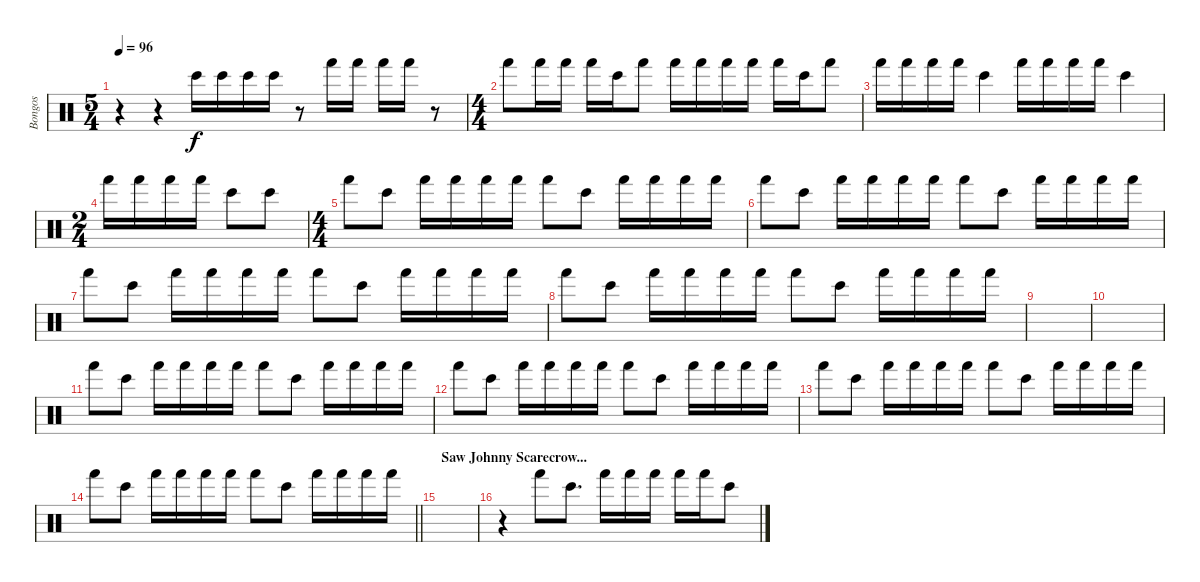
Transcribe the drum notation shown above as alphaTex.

\track ("Bongos" "Bongos") {instrument percussion}
\staff {score}
\articulation defaults
\ts (5 4)
\tempo 96
\clef neutral
\ks c
r.4{dy f} r.4 "Bongo High (hit)".16 "Bongo High (hit)".16 "Bongo High (hit)".16 "Bongo High (hit)".16 r.8 "Hand (hit)".16 "Hand (hit)".16 "Hand (hit)".16 "Hand (hit)".16 r.8 |
\ts (4 4)
"Hand (hit)".8 "Hand (hit)".16 "Hand (hit)".16 "Hand (hit)".16 "Bongo High (hit)".16 "Hand (hit)".8 "Hand (hit)".16 "Hand (hit)".16 "Hand (hit)".16 "Hand (hit)".16 "Hand (hit)".16 "Bongo High (hit)".16 "Hand (hit)".8 |
"Hand (hit)".16 "Hand (hit)".16 "Hand (hit)".16 "Hand (hit)".16 "Bongo High (hit)".4 "Hand (hit)".16 "Hand (hit)".16 "Hand (hit)".16 "Hand (hit)".16 "Bongo High (hit)".4 |
\ts (2 4)
"Hand (hit)".16 "Hand (hit)".16 "Hand (hit)".16 "Hand (hit)".16 "Bongo High (hit)".8 "Bongo High (hit)".8 |
\ts (4 4)
"Hand (hit)".8 "Bongo High (hit)".8 "Hand (hit)".16 "Hand (hit)".16 "Hand (hit)".16 "Hand (hit)".16 "Hand (hit)".8 "Bongo High (hit)".8 "Hand (hit)".16 "Hand (hit)".16 "Hand (hit)".16 "Hand (hit)".16 |
"Hand (hit)".8 "Bongo High (hit)".8 "Hand (hit)".16 "Hand (hit)".16 "Hand (hit)".16 "Hand (hit)".16 "Hand (hit)".8 "Bongo High (hit)".8 "Hand (hit)".16 "Hand (hit)".16 "Hand (hit)".16 "Hand (hit)".16 |
"Hand (hit)".8 "Bongo High (hit)".8 "Hand (hit)".16 "Hand (hit)".16 "Hand (hit)".16 "Hand (hit)".16 "Hand (hit)".8 "Bongo High (hit)".8 "Hand (hit)".16 "Hand (hit)".16 "Hand (hit)".16 "Hand (hit)".16 |
"Hand (hit)".8 "Bongo High (hit)".8 "Hand (hit)".16 "Hand (hit)".16 "Hand (hit)".16 "Hand (hit)".16 "Hand (hit)".8 "Bongo High (hit)".8 "Hand (hit)".16 "Hand (hit)".16 "Hand (hit)".16 "Hand (hit)".16 |
|
|
"Hand (hit)".8 "Bongo High (hit)".8 "Hand (hit)".16 "Hand (hit)".16 "Hand (hit)".16 "Hand (hit)".16 "Hand (hit)".8 "Bongo High (hit)".8 "Hand (hit)".16 "Hand (hit)".16 "Hand (hit)".16 "Hand (hit)".16 |
"Hand (hit)".8 "Bongo High (hit)".8 "Hand (hit)".16 "Hand (hit)".16 "Hand (hit)".16 "Hand (hit)".16 "Hand (hit)".8 "Bongo High (hit)".8 "Hand (hit)".16 "Hand (hit)".16 "Hand (hit)".16 "Hand (hit)".16 |
"Hand (hit)".8 "Bongo High (hit)".8 "Hand (hit)".16 "Hand (hit)".16 "Hand (hit)".16 "Hand (hit)".16 "Hand (hit)".8 "Bongo High (hit)".8 "Hand (hit)".16 "Hand (hit)".16 "Hand (hit)".16 "Hand (hit)".16 |
\barLineRight lightlight "Hand (hit)".8 "Bongo High (hit)".8 "Hand (hit)".16 "Hand (hit)".16 "Hand (hit)".16 "Hand (hit)".16 "Hand (hit)".8 "Bongo High (hit)".8 "Hand (hit)".16 "Hand (hit)".16 "Hand (hit)".16 "Hand (hit)".16
|
\section ("" "Saw Johnny Scarecrow...")
|
r.4 "Hand (hit)".8 "Bongo High (hit)".8{d} "Hand (hit)".16 "Hand (hit)".16 "Hand (hit)".16 "Hand (hit)".16 "Hand (hit)".16 "Bongo High (hit)".8
